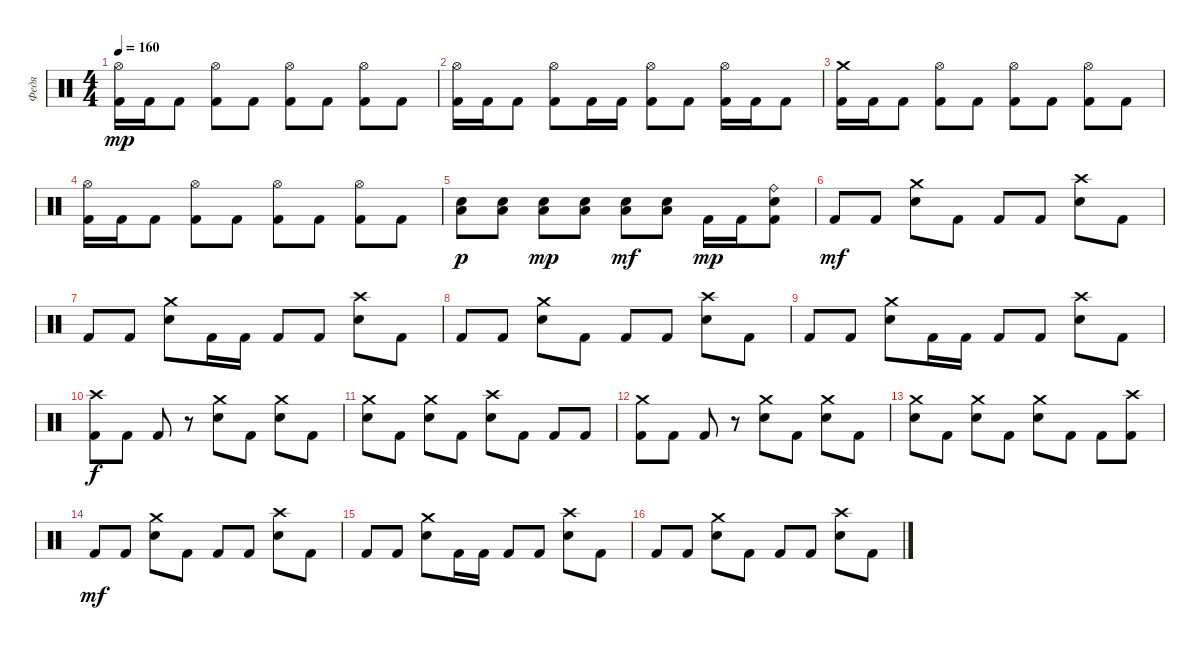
\track ("Федя" "Федя") {instrument percussion}
\staff {score}
\articulation defaults
\ts (4 4)
\tempo 160
\clef neutral
\ks c
("Hi-Hat (open)" "Kick (hit) 2").16{dy mp} "Kick (hit) 2".16 "Kick (hit) 2".8 ("Hi-Hat (open)" "Kick (hit) 2").8 "Kick (hit) 2".8 ("Hi-Hat (open)" "Kick (hit) 2").8 "Kick (hit) 2".8 ("Hi-Hat (open)" "Kick (hit) 2").8 "Kick (hit) 2".8 |
("Hi-Hat (open)" "Kick (hit) 2").16 "Kick (hit) 2".16 "Kick (hit) 2".8 ("Hi-Hat (open)" "Kick (hit) 2").8 "Kick (hit) 2".16 "Kick (hit) 2".16 ("Hi-Hat (open)" "Kick (hit) 2").8 "Kick (hit) 2".8 ("Hi-Hat (open)" "Kick (hit) 2").16 "Kick (hit) 2".16 "Kick (hit) 2".8 |
("Crash medium (hit)" "Kick (hit) 2").16 "Kick (hit) 2".16 "Kick (hit) 2".8 ("Hi-Hat (open)" "Kick (hit) 2").8 "Kick (hit) 2".8 ("Hi-Hat (open)" "Kick (hit) 2").8 "Kick (hit) 2".8 ("Hi-Hat (open)" "Kick (hit) 2").8 "Kick (hit) 2".8 |
("Hi-Hat (open)" "Kick (hit) 2").16 "Kick (hit) 2".16 "Kick (hit) 2".8 ("Hi-Hat (open)" "Kick (hit) 2").8 "Kick (hit) 2".8 ("Hi-Hat (open)" "Kick (hit) 2").8 "Kick (hit) 2".8 ("Hi-Hat (open)" "Kick (hit) 2").8 "Kick (hit) 2".8 |
("Low Tom (hit)" "Electric Snare (hit)").8{dy p} ("Low Tom (hit)" "Electric Snare (hit)").8 ("Low Tom (hit)" "Electric Snare (hit)").8{dy mp} ("Low Tom (hit)" "Electric Snare (hit)").8 ("Low Tom (hit)" "Electric Snare (hit)").8{dy mf} ("Low Tom (hit)" "Electric Snare (hit)").8 "Kick (hit) 2".16{dy mp} "Kick (hit) 2".16 ("Ride (bell)" "Electric Snare (hit)" "Kick (hit) 2").8 |
"Kick (hit) 2".8{dy mf} "Kick (hit) 2".8 ("Crash medium (hit)" "Electric Snare (hit)").8 "Kick (hit) 2".8 "Kick (hit) 2".8 "Kick (hit) 2".8 ("Crash high (hit)" "Electric Snare (hit)").8 "Kick (hit) 2".8 |
"Kick (hit) 2".8 "Kick (hit) 2".8 ("Crash medium (hit)" "Electric Snare (hit)").8 "Kick (hit) 2".16 "Kick (hit) 2".16 "Kick (hit) 2".8 "Kick (hit) 2".8 ("Crash high (hit)" "Electric Snare (hit)").8 "Kick (hit) 2".8 |
"Kick (hit) 2".8 "Kick (hit) 2".8 ("Crash medium (hit)" "Electric Snare (hit)").8 "Kick (hit) 2".8 "Kick (hit) 2".8 "Kick (hit) 2".8 ("Crash high (hit)" "Electric Snare (hit)").8 "Kick (hit) 2".8 |
"Kick (hit) 2".8 "Kick (hit) 2".8 ("Crash medium (hit)" "Electric Snare (hit)").8 "Kick (hit) 2".16 "Kick (hit) 2".16 "Kick (hit) 2".8 "Kick (hit) 2".8 ("Crash high (hit)" "Electric Snare (hit)").8 "Kick (hit) 2".8 |
("Crash high (hit)" "Kick (hit) 2").8{dy f} "Kick (hit) 2".8 "Kick (hit) 2".8 r.8 ("Crash medium (hit)" "Electric Snare (hit)").8 "Kick (hit) 2".8 ("Crash medium (hit)" "Electric Snare (hit)").8 "Kick (hit) 2".8 |
("Crash medium (hit)" "Electric Snare (hit)").8 "Kick (hit) 2".8 ("Crash medium (hit)" "Electric Snare (hit)").8 "Kick (hit) 2".8 ("Crash high (hit)" "Electric Snare (hit)").8 "Kick (hit) 2".8 "Kick (hit) 2".8 "Kick (hit) 2".8 |
("Crash medium (hit)" "Kick (hit) 2").8 "Kick (hit) 2".8 "Kick (hit) 2".8 r.8 ("Crash medium (hit)" "Electric Snare (hit)").8 "Kick (hit) 2".8 ("Crash medium (hit)" "Electric Snare (hit)").8 "Kick (hit) 2".8 |
("Crash medium (hit)" "Electric Snare (hit)").8 "Kick (hit) 2".8 ("Crash medium (hit)" "Electric Snare (hit)").8 "Kick (hit) 2".8 ("Crash medium (hit)" "Electric Snare (hit)").8 "Kick (hit) 2".8 "Kick (hit) 2".8 ("Crash high (hit)" "Kick (hit) 2").8 |
"Kick (hit) 2".8{dy mf} "Kick (hit) 2".8 ("Crash medium (hit)" "Electric Snare (hit)").8 "Kick (hit) 2".8 "Kick (hit) 2".8 "Kick (hit) 2".8 ("Crash high (hit)" "Electric Snare (hit)").8 "Kick (hit) 2".8 |
"Kick (hit) 2".8 "Kick (hit) 2".8 ("Crash medium (hit)" "Electric Snare (hit)").8 "Kick (hit) 2".16 "Kick (hit) 2".16 "Kick (hit) 2".8 "Kick (hit) 2".8 ("Crash high (hit)" "Electric Snare (hit)").8 "Kick (hit) 2".8 |
"Kick (hit) 2".8 "Kick (hit) 2".8 ("Crash medium (hit)" "Electric Snare (hit)").8 "Kick (hit) 2".8 "Kick (hit) 2".8 "Kick (hit) 2".8 ("Crash high (hit)" "Electric Snare (hit)").8 "Kick (hit) 2".8
